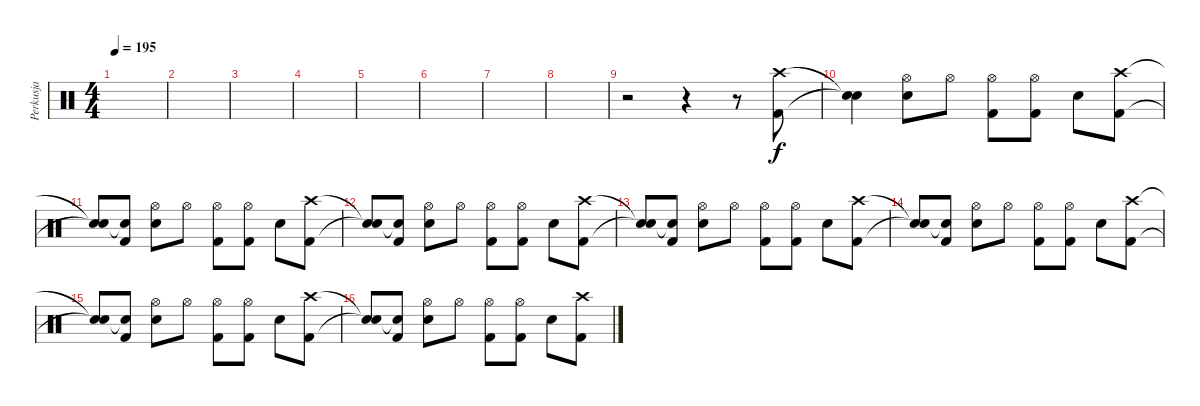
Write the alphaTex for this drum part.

\track ("Perkusja" "Perkusja") {instrument percussion}
\staff {score}
\articulation defaults
\ts (4 4)
\tempo 195
\clef neutral
\ks c
|
|
|
|
|
|
|
|
r.2 r.4 r.8 ("Kick (hit) 2" "Crash high (hit)").8 |
("Snare (hit)"{t} "Snare (hit)"{t}).4 ("Electric Snare (hit)" "Hi-Hat (open)").8 "Hi-Hat (open)".8 ("Kick (hit) 2" "Hi-Hat (open)").8 ("Kick (hit) 2" "Hi-Hat (open)").8 "Electric Snare (hit)".8 ("Kick (hit) 2" "Crash high (hit)").8 |
("Snare (hit)"{t} "Snare (hit)"{t}).8 ("Kick (hit) 2" "Snare (hit)"{t}).8 ("Electric Snare (hit)" "Hi-Hat (open)").8 "Hi-Hat (open)".8 ("Kick (hit) 2" "Hi-Hat (open)").8 ("Kick (hit) 2" "Hi-Hat (open)").8 "Electric Snare (hit)".8 ("Kick (hit) 2" "Crash high (hit)").8 |
("Snare (hit)"{t} "Snare (hit)"{t}).8 ("Kick (hit) 2" "Snare (hit)"{t}).8 ("Electric Snare (hit)" "Hi-Hat (open)").8 "Hi-Hat (open)".8 ("Kick (hit) 2" "Hi-Hat (open)").8 ("Kick (hit) 2" "Hi-Hat (open)").8 "Electric Snare (hit)".8 ("Kick (hit) 2" "Crash high (hit)").8 |
("Snare (hit)"{t} "Snare (hit)"{t}).8 ("Kick (hit) 2" "Snare (hit)"{t}).8 ("Electric Snare (hit)" "Hi-Hat (open)").8 "Hi-Hat (open)".8 ("Kick (hit) 2" "Hi-Hat (open)").8 ("Kick (hit) 2" "Hi-Hat (open)").8 "Electric Snare (hit)".8 ("Kick (hit) 2" "Crash high (hit)").8 |
("Snare (hit)"{t} "Snare (hit)"{t}).8 ("Kick (hit) 2" "Snare (hit)"{t}).8 ("Electric Snare (hit)" "Hi-Hat (open)").8 "Hi-Hat (open)".8 ("Kick (hit) 2" "Hi-Hat (open)").8 ("Kick (hit) 2" "Hi-Hat (open)").8 "Electric Snare (hit)".8 ("Kick (hit) 2" "Crash high (hit)").8 |
("Snare (hit)"{t} "Snare (hit)"{t}).8 ("Kick (hit) 2" "Snare (hit)"{t}).8 ("Electric Snare (hit)" "Hi-Hat (open)").8 "Hi-Hat (open)".8 ("Kick (hit) 2" "Hi-Hat (open)").8 ("Kick (hit) 2" "Hi-Hat (open)").8 "Electric Snare (hit)".8 ("Kick (hit) 2" "Crash high (hit)").8 |
("Snare (hit)"{t} "Snare (hit)"{t}).8 ("Kick (hit) 2" "Snare (hit)"{t}).8 ("Electric Snare (hit)" "Hi-Hat (open)").8 "Hi-Hat (open)".8 ("Kick (hit) 2" "Hi-Hat (open)").8 ("Kick (hit) 2" "Hi-Hat (open)").8 "Electric Snare (hit)".8 ("Kick (hit) 2" "Crash high (hit)").8
